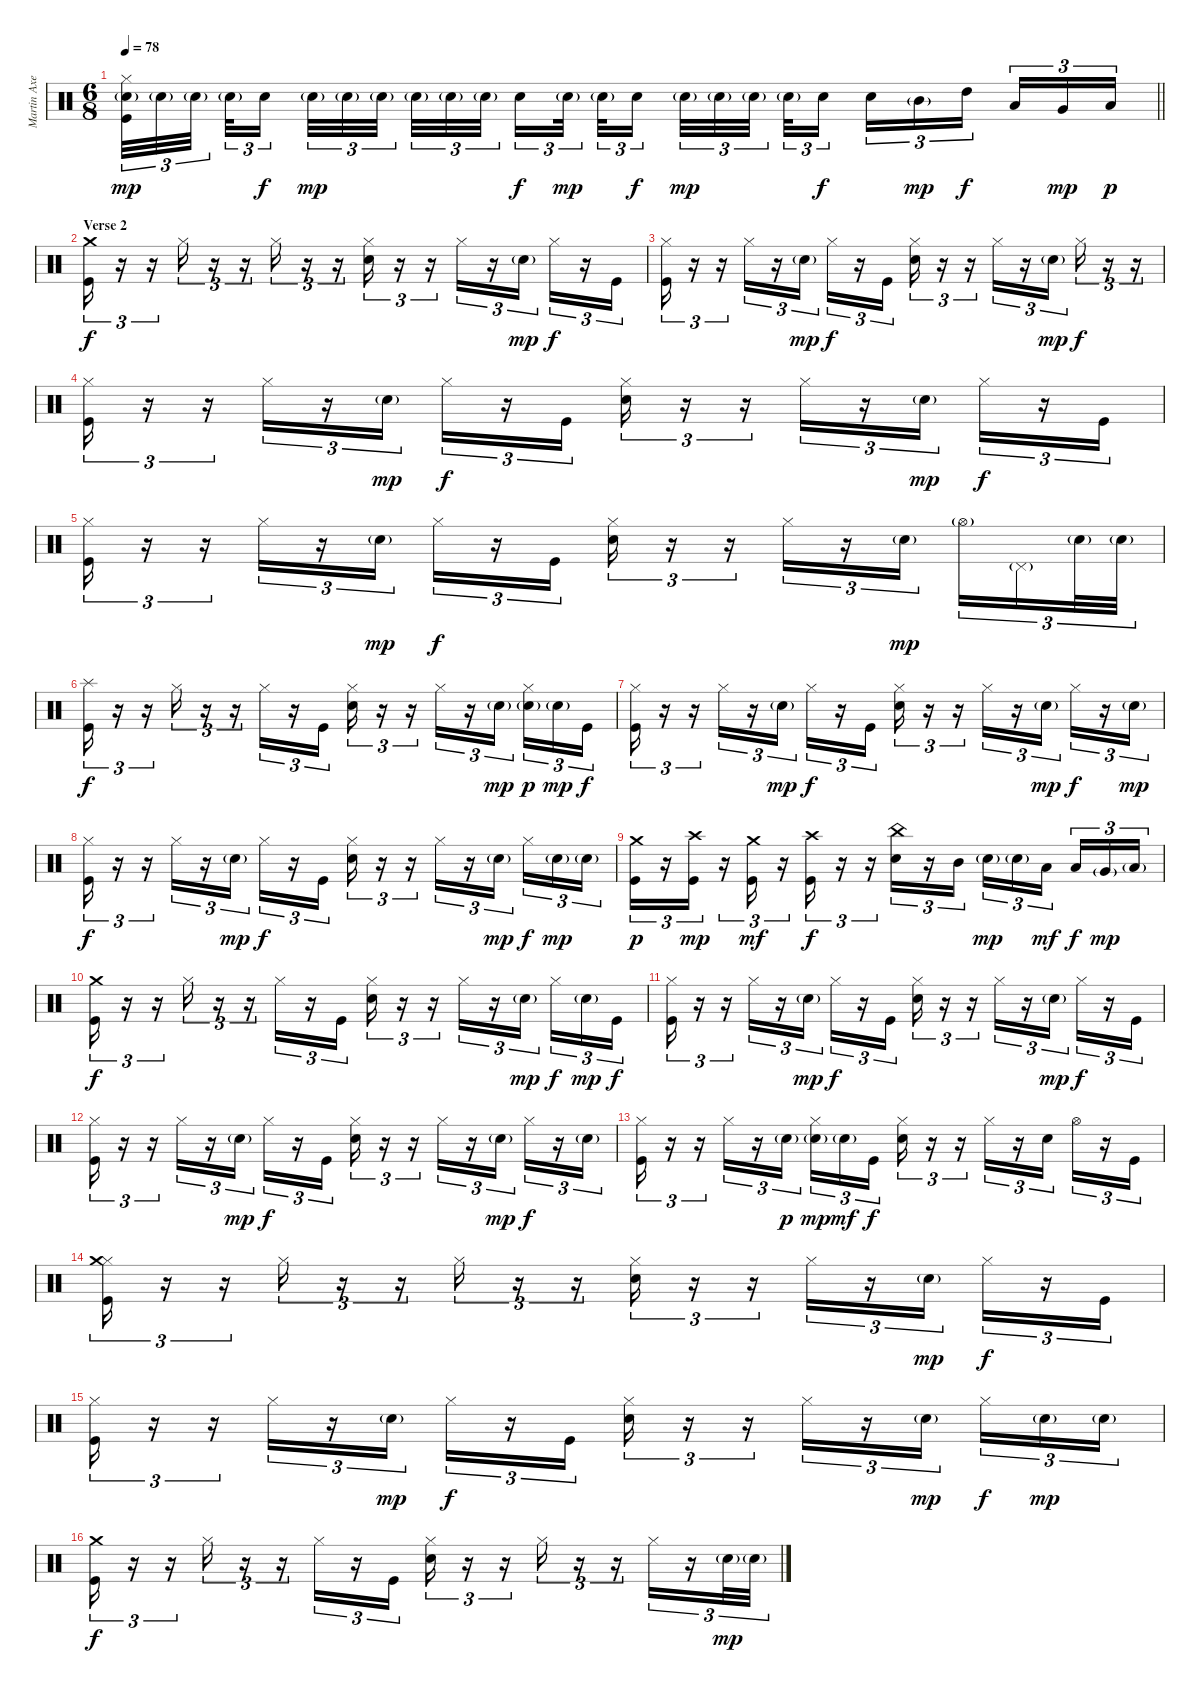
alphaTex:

\track ("Martin Axenrot" "Martin Axe") {instrument percussion}
\staff {score}
\articulation defaults
\ts (6 8)
\tempo 78
\clef neutral
\barLineRight lightlight
\ks c
("Hi-Hat (closed)" "Snare (hit) 2"{g} "Kick (hit)").32{tu (3 2) dy mp} "Snare (hit) 2"{g}.32{tu (3 2)} "Snare (hit) 2"{g}.32{tu (3 2) beam splitsecondary} "Snare (hit) 2"{g}.32{tu (3 2)} "Snare (hit) 2".16{tu (3 2) dy f beam splitsecondary} "Snare (hit) 2"{g}.32{tu (3 2) dy mp} "Snare (hit) 2"{g}.32{tu (3 2)} "Snare (hit) 2"{g}.32{tu (3 2) beam splitsecondary} "Snare (hit) 2"{g}.32{tu (3 2)} "Snare (hit) 2"{g}.32{tu (3 2)} "Snare (hit) 2"{g}.32{tu (3 2) beam splitsecondary} "Snare (hit) 2".16{tu (3 2) dy f} "Snare (hit) 2"{g}.32{tu (3 2) dy mp beam splitsecondary} "Snare (hit) 2"{g}.32{tu (3 2)} "Snare (hit) 2".16{tu (3 2) dy f} "Snare (hit) 2"{g}.32{tu (3 2) dy mp} "Snare (hit) 2"{g}.32{tu (3 2)} "Snare (hit) 2"{g}.32{tu (3 2) beam splitsecondary} "Snare (hit) 2"{g}.32{tu (3 2)} "Snare (hit) 2".16{tu (3 2) dy f beam splitsecondary} "Snare (hit) 2".16{tu (3 2)} "Mid Tom (hit)"{g}.16{tu (3 2) dy mp} "High Tom (hit)".16{tu (3 2) dy f beam splitsecondary} "Low Tom (hit)".16{tu (3 2)} "Very Low Tom (hit)".16{tu (3 2) dy mp} "Low Floor Tom (hit)".16{tu (3 2) dy p} |
\section ("" "Verse 2")
("Crash medium (hit)" "Kick (hit)").16{tu (3 2) dy f} r.16{tu (3 2)} r.16{tu (3 2)} "Hi-Hat (closed)".16{tu (3 2)} r.16{tu (3 2)} r.16{tu (3 2)} "Hi-Hat (closed)".16{tu (3 2)} r.16{tu (3 2)} r.16{tu (3 2)} ("Hi-Hat (closed)" "Snare (hit) 2").16{tu (3 2)} r.16{tu (3 2)} r.16{tu (3 2)} "Hi-Hat (closed)".16{tu (3 2)} r.16{tu (3 2)} "Snare (hit) 2"{g}.16{tu (3 2) dy mp} "Hi-Hat (closed)".16{tu (3 2) dy f} r.16{tu (3 2)} "Kick (hit)".16{tu (3 2)} |
("Hi-Hat (closed)" "Kick (hit)").16{tu (3 2)} r.16{tu (3 2)} r.16{tu (3 2)} "Hi-Hat (closed)".16{tu (3 2)} r.16{tu (3 2)} "Snare (hit) 2"{g}.16{tu (3 2) dy mp} "Hi-Hat (closed)".16{tu (3 2) dy f} r.16{tu (3 2)} "Kick (hit)".16{tu (3 2)} ("Hi-Hat (closed)" "Snare (hit) 2").16{tu (3 2)} r.16{tu (3 2)} r.16{tu (3 2)} "Hi-Hat (closed)".16{tu (3 2)} r.16{tu (3 2)} "Snare (hit) 2"{g}.16{tu (3 2) dy mp} "Hi-Hat (closed)".16{tu (3 2) dy f} r.16{tu (3 2)} r.16{tu (3 2)} |
("Hi-Hat (closed)" "Kick (hit)").16{tu (3 2)} r.16{tu (3 2)} r.16{tu (3 2)} "Hi-Hat (closed)".16{tu (3 2)} r.16{tu (3 2)} "Snare (hit) 2"{g}.16{tu (3 2) dy mp} "Hi-Hat (closed)".16{tu (3 2) dy f} r.16{tu (3 2)} "Kick (hit)".16{tu (3 2)} ("Hi-Hat (closed)" "Snare (hit) 2").16{tu (3 2)} r.16{tu (3 2)} r.16{tu (3 2)} "Hi-Hat (closed)".16{tu (3 2)} r.16{tu (3 2)} "Snare (hit) 2"{g}.16{tu (3 2) dy mp} "Hi-Hat (closed)".16{tu (3 2) dy f} r.16{tu (3 2)} "Kick (hit)".16{tu (3 2)} |
("Hi-Hat (closed)" "Kick (hit)").16{tu (3 2)} r.16{tu (3 2)} r.16{tu (3 2)} "Hi-Hat (closed)".16{tu (3 2)} r.16{tu (3 2)} "Snare (hit) 2"{g}.16{tu (3 2) dy mp} "Hi-Hat (closed)".16{tu (3 2) dy f} r.16{tu (3 2)} "Kick (hit)".16{tu (3 2)} ("Hi-Hat (closed)" "Snare (hit) 2").16{tu (3 2)} r.16{tu (3 2)} r.16{tu (3 2)} "Hi-Hat (closed)".16{tu (3 2)} r.16{tu (3 2)} "Snare (hit) 2"{g}.16{tu (3 2) dy mp beam splitsecondary} "Hi-Hat (open)"{g}.16{tu (3 2)} "Pedal Hi-Hat (hit)"{g}.16{tu (3 2)} "Snare (hit) 2"{g}.32{tu (3 2)} "Snare (hit) 2"{g}.32{tu (3 2)} |
("Splash (hit)" "Kick (hit)").16{tu (3 2) dy f} r.16{tu (3 2)} r.16{tu (3 2)} "Hi-Hat (closed)".16{tu (3 2)} r.16{tu (3 2)} r.16{tu (3 2)} "Hi-Hat (closed)".16{tu (3 2)} r.16{tu (3 2)} "Kick (hit)".16{tu (3 2)} ("Hi-Hat (closed)" "Snare (hit) 2").16{tu (3 2)} r.16{tu (3 2)} r.16{tu (3 2)} "Hi-Hat (closed)".16{tu (3 2)} r.16{tu (3 2)} "Snare (hit) 2"{g}.16{tu (3 2) dy mp beam splitsecondary} ("Hi-Hat (closed)" "Snare (hit) 2"{g}).16{tu (3 2) dy p} "Snare (hit) 2"{g}.16{tu (3 2) dy mp} "Kick (hit)".16{tu (3 2) dy f} |
("Hi-Hat (closed)" "Kick (hit)").16{tu (3 2)} r.16{tu (3 2)} r.16{tu (3 2)} "Hi-Hat (closed)".16{tu (3 2)} r.16{tu (3 2)} "Snare (hit) 2"{g}.16{tu (3 2) dy mp} "Hi-Hat (closed)".16{tu (3 2) dy f} r.16{tu (3 2)} "Kick (hit)".16{tu (3 2)} ("Hi-Hat (closed)" "Snare (hit) 2").16{tu (3 2)} r.16{tu (3 2)} r.16{tu (3 2)} "Hi-Hat (closed)".16{tu (3 2)} r.16{tu (3 2)} "Snare (hit) 2"{g}.16{tu (3 2) dy mp} "Hi-Hat (closed)".16{tu (3 2) dy f} r.16{tu (3 2)} "Snare (hit) 2"{g}.16{tu (3 2) dy mp} |
("Hi-Hat (closed)" "Kick (hit)").16{tu (3 2) dy f} r.16{tu (3 2)} r.16{tu (3 2)} "Hi-Hat (closed)".16{tu (3 2)} r.16{tu (3 2)} "Snare (hit) 2"{g}.16{tu (3 2) dy mp} "Hi-Hat (closed)".16{tu (3 2) dy f} r.16{tu (3 2)} "Kick (hit)".16{tu (3 2)} ("Hi-Hat (closed)" "Snare (hit) 2").16{tu (3 2)} r.16{tu (3 2)} r.16{tu (3 2)} "Hi-Hat (closed)".16{tu (3 2)} r.16{tu (3 2)} "Snare (hit) 2"{g}.16{tu (3 2) dy mp beam splitsecondary} "Hi-Hat (closed)".16{tu (3 2) dy f} "Snare (hit) 2"{g}.16{tu (3 2) dy mp} "Snare (hit) 2"{g}.16{tu (3 2)} |
("Crash medium (hit)" "Kick (hit)").16{tu (3 2) dy p} r.16{tu (3 2)} ("Crash high (hit)" "Kick (hit)").16{tu (3 2) dy mp} r.16{tu (3 2)} ("Crash medium (hit)" "Kick (hit)").16{tu (3 2) dy mf} r.16{tu (3 2)} ("Crash high (hit)" "Kick (hit)").16{tu (3 2) dy f} r.16{tu (3 2)} r.16{tu (3 2)} ("China (hit)" "Snare (hit) 2").16{tu (3 2)} r.16{tu (3 2)} "Mid Tom (hit)".16{tu (3 2) beam splitsecondary} "Snare (hit) 2"{g}.16{tu (3 2) dy mp} "Snare (hit) 2"{g}.16{tu (3 2)} "Low Tom (hit)".16{tu (3 2) dy mf beam splitsecondary} "Low Tom (hit)".16{tu (3 2) dy f} "Very Low Tom (hit)"{g}.16{tu (3 2) dy mp} "Low Floor Tom (hit)"{g}.16{tu (3 2)} |
("Crash medium (hit)" "Kick (hit)").16{tu (3 2) dy f} r.16{tu (3 2)} r.16{tu (3 2)} "Hi-Hat (closed)".16{tu (3 2)} r.16{tu (3 2)} r.16{tu (3 2)} "Hi-Hat (closed)".16{tu (3 2)} r.16{tu (3 2)} "Kick (hit)".16{tu (3 2)} ("Hi-Hat (closed)" "Snare (hit) 2").16{tu (3 2)} r.16{tu (3 2)} r.16{tu (3 2)} "Hi-Hat (closed)".16{tu (3 2)} r.16{tu (3 2)} "Snare (hit) 2"{g}.16{tu (3 2) dy mp beam splitsecondary} "Hi-Hat (closed)".16{tu (3 2) dy f} "Snare (hit) 2"{g}.16{tu (3 2) dy mp} "Kick (hit)".16{tu (3 2) dy f} |
("Hi-Hat (closed)" "Kick (hit)").16{tu (3 2)} r.16{tu (3 2)} r.16{tu (3 2)} "Hi-Hat (closed)".16{tu (3 2)} r.16{tu (3 2)} "Snare (hit) 2"{g}.16{tu (3 2) dy mp} "Hi-Hat (closed)".16{tu (3 2) dy f} r.16{tu (3 2)} "Kick (hit)".16{tu (3 2)} ("Hi-Hat (closed)" "Snare (hit) 2").16{tu (3 2)} r.16{tu (3 2)} r.16{tu (3 2)} "Hi-Hat (closed)".16{tu (3 2)} r.16{tu (3 2)} "Snare (hit) 2"{g}.16{tu (3 2) dy mp} "Hi-Hat (closed)".16{tu (3 2) dy f} r.16{tu (3 2)} "Kick (hit)".16{tu (3 2)} |
("Hi-Hat (closed)" "Kick (hit)").16{tu (3 2)} r.16{tu (3 2)} r.16{tu (3 2)} "Hi-Hat (closed)".16{tu (3 2)} r.16{tu (3 2)} "Snare (hit) 2"{g}.16{tu (3 2) dy mp} "Hi-Hat (closed)".16{tu (3 2) dy f} r.16{tu (3 2)} "Kick (hit)".16{tu (3 2)} ("Hi-Hat (closed)" "Snare (hit) 2").16{tu (3 2)} r.16{tu (3 2)} r.16{tu (3 2)} "Hi-Hat (closed)".16{tu (3 2)} r.16{tu (3 2)} "Snare (hit) 2"{g}.16{tu (3 2) dy mp} "Hi-Hat (closed)".16{tu (3 2) dy f} r.16{tu (3 2)} "Snare (hit) 2"{g}.16{tu (3 2)} |
("Hi-Hat (closed)" "Kick (hit)").16{tu (3 2)} r.16{tu (3 2)} r.16{tu (3 2)} "Hi-Hat (closed)".16{tu (3 2)} r.16{tu (3 2)} "Snare (hit) 2"{g}.16{tu (3 2) dy p beam splitsecondary} ("Hi-Hat (closed)" "Snare (hit) 2"{g}).16{tu (3 2) dy mp} "Snare (hit) 2"{g}.16{tu (3 2) dy mf} "Kick (hit)".16{tu (3 2) dy f} ("Hi-Hat (closed)" "Snare (hit) 2").16{tu (3 2)} r.16{tu (3 2)} r.16{tu (3 2)} "Hi-Hat (closed)".16{tu (3 2)} r.16{tu (3 2)} "Snare (hit) 2".16{tu (3 2)} "Hi-Hat (open)".16{tu (3 2)} r.16{tu (3 2)} "Kick (hit)".16{tu (3 2)} |
("Hi-Hat (closed)" "Crash medium (hit)" "Kick (hit)").16{tu (3 2)} r.16{tu (3 2)} r.16{tu (3 2)} "Hi-Hat (closed)".16{tu (3 2)} r.16{tu (3 2)} r.16{tu (3 2)} "Hi-Hat (closed)".16{tu (3 2)} r.16{tu (3 2)} r.16{tu (3 2)} ("Hi-Hat (closed)" "Snare (hit) 2").16{tu (3 2)} r.16{tu (3 2)} r.16{tu (3 2)} "Hi-Hat (closed)".16{tu (3 2)} r.16{tu (3 2)} "Snare (hit) 2"{g}.16{tu (3 2) dy mp} "Hi-Hat (closed)".16{tu (3 2) dy f} r.16{tu (3 2)} "Kick (hit)".16{tu (3 2)} |
("Hi-Hat (closed)" "Kick (hit)").16{tu (3 2)} r.16{tu (3 2)} r.16{tu (3 2)} "Hi-Hat (closed)".16{tu (3 2)} r.16{tu (3 2)} "Snare (hit) 2"{g}.16{tu (3 2) dy mp} "Hi-Hat (closed)".16{tu (3 2) dy f} r.16{tu (3 2)} "Kick (hit)".16{tu (3 2)} ("Hi-Hat (closed)" "Snare (hit) 2").16{tu (3 2)} r.16{tu (3 2)} r.16{tu (3 2)} "Hi-Hat (closed)".16{tu (3 2)} r.16{tu (3 2)} "Snare (hit) 2"{g}.16{tu (3 2) dy mp beam splitsecondary} "Hi-Hat (closed)".16{tu (3 2) dy f} "Snare (hit) 2"{g}.16{tu (3 2) dy mp} "Snare (hit) 2"{g}.16{tu (3 2)} |
("Crash medium (hit)" "Kick (hit)").16{tu (3 2) dy f} r.16{tu (3 2)} r.16{tu (3 2)} "Hi-Hat (closed)".16{tu (3 2)} r.16{tu (3 2)} r.16{tu (3 2)} "Hi-Hat (closed)".16{tu (3 2)} r.16{tu (3 2)} "Kick (hit)".16{tu (3 2)} ("Hi-Hat (closed)" "Snare (hit) 2").16{tu (3 2)} r.16{tu (3 2)} r.16{tu (3 2)} "Hi-Hat (closed)".16{tu (3 2)} r.16{tu (3 2)} r.16{tu (3 2)} "Hi-Hat (closed)".16{tu (3 2)} r.16{tu (3 2)} "Snare (hit) 2"{g}.32{tu (3 2) dy mp} "Snare (hit) 2"{g}.32{tu (3 2)}
